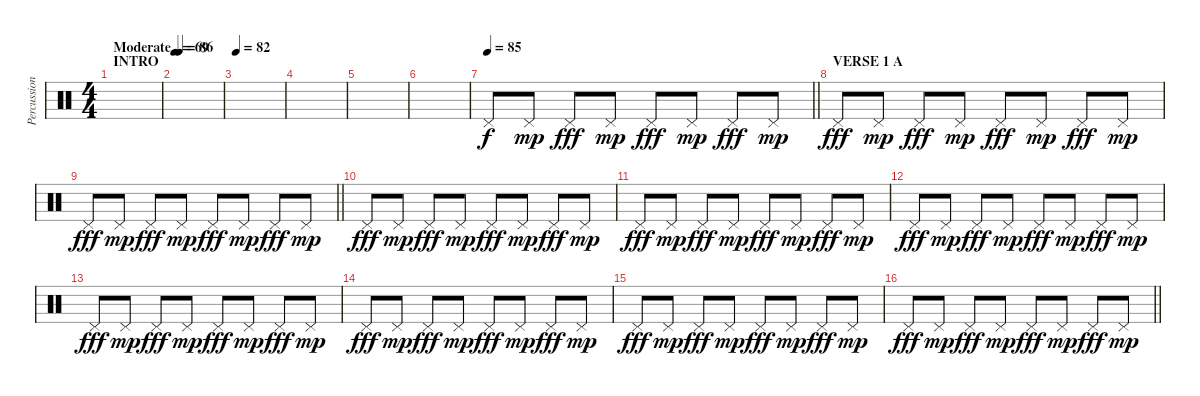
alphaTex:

\track ("Percussion" "Percussion") {instrument percussion}
\staff {score}
\articulation defaults
\ts (4 4)
\section ("" "INTRO")
\tempo (86 "Moderate")
\clef neutral
\ks c
|
\tempo 69
|
\tempo 82
|
|
|
|
\tempo 85
\barLineRight lightlight "Pedal Hi-Hat (hit)".8 "Pedal Hi-Hat (hit)".8{dy mp} "Pedal Hi-Hat (hit)".8{dy fff} "Pedal Hi-Hat (hit)".8{dy mp} "Pedal Hi-Hat (hit)".8{dy fff} "Pedal Hi-Hat (hit)".8{dy mp} "Pedal Hi-Hat (hit)".8{dy fff} "Pedal Hi-Hat (hit)".8{dy mp}
|
\section ("" "VERSE 1 A")
"Pedal Hi-Hat (hit)".8{dy fff} "Pedal Hi-Hat (hit)".8{dy mp} "Pedal Hi-Hat (hit)".8{dy fff} "Pedal Hi-Hat (hit)".8{dy mp} "Pedal Hi-Hat (hit)".8{dy fff} "Pedal Hi-Hat (hit)".8{dy mp} "Pedal Hi-Hat (hit)".8{dy fff} "Pedal Hi-Hat (hit)".8{dy mp} |
\barLineRight lightlight "Pedal Hi-Hat (hit)".8{dy fff} "Pedal Hi-Hat (hit)".8{dy mp} "Pedal Hi-Hat (hit)".8{dy fff} "Pedal Hi-Hat (hit)".8{dy mp} "Pedal Hi-Hat (hit)".8{dy fff} "Pedal Hi-Hat (hit)".8{dy mp} "Pedal Hi-Hat (hit)".8{dy fff} "Pedal Hi-Hat (hit)".8{dy mp}
|
"Pedal Hi-Hat (hit)".8{dy fff} "Pedal Hi-Hat (hit)".8{dy mp} "Pedal Hi-Hat (hit)".8{dy fff} "Pedal Hi-Hat (hit)".8{dy mp} "Pedal Hi-Hat (hit)".8{dy fff} "Pedal Hi-Hat (hit)".8{dy mp} "Pedal Hi-Hat (hit)".8{dy fff} "Pedal Hi-Hat (hit)".8{dy mp} |
"Pedal Hi-Hat (hit)".8{dy fff} "Pedal Hi-Hat (hit)".8{dy mp} "Pedal Hi-Hat (hit)".8{dy fff} "Pedal Hi-Hat (hit)".8{dy mp} "Pedal Hi-Hat (hit)".8{dy fff} "Pedal Hi-Hat (hit)".8{dy mp} "Pedal Hi-Hat (hit)".8{dy fff} "Pedal Hi-Hat (hit)".8{dy mp} |
"Pedal Hi-Hat (hit)".8{dy fff} "Pedal Hi-Hat (hit)".8{dy mp} "Pedal Hi-Hat (hit)".8{dy fff} "Pedal Hi-Hat (hit)".8{dy mp} "Pedal Hi-Hat (hit)".8{dy fff} "Pedal Hi-Hat (hit)".8{dy mp} "Pedal Hi-Hat (hit)".8{dy fff} "Pedal Hi-Hat (hit)".8{dy mp} |
"Pedal Hi-Hat (hit)".8{dy fff} "Pedal Hi-Hat (hit)".8{dy mp} "Pedal Hi-Hat (hit)".8{dy fff} "Pedal Hi-Hat (hit)".8{dy mp} "Pedal Hi-Hat (hit)".8{dy fff} "Pedal Hi-Hat (hit)".8{dy mp} "Pedal Hi-Hat (hit)".8{dy fff} "Pedal Hi-Hat (hit)".8{dy mp} |
"Pedal Hi-Hat (hit)".8{dy fff} "Pedal Hi-Hat (hit)".8{dy mp} "Pedal Hi-Hat (hit)".8{dy fff} "Pedal Hi-Hat (hit)".8{dy mp} "Pedal Hi-Hat (hit)".8{dy fff} "Pedal Hi-Hat (hit)".8{dy mp} "Pedal Hi-Hat (hit)".8{dy fff} "Pedal Hi-Hat (hit)".8{dy mp} |
"Pedal Hi-Hat (hit)".8{dy fff} "Pedal Hi-Hat (hit)".8{dy mp} "Pedal Hi-Hat (hit)".8{dy fff} "Pedal Hi-Hat (hit)".8{dy mp} "Pedal Hi-Hat (hit)".8{dy fff} "Pedal Hi-Hat (hit)".8{dy mp} "Pedal Hi-Hat (hit)".8{dy fff} "Pedal Hi-Hat (hit)".8{dy mp} |
\barLineRight lightlight "Pedal Hi-Hat (hit)".8{dy fff} "Pedal Hi-Hat (hit)".8{dy mp} "Pedal Hi-Hat (hit)".8{dy fff} "Pedal Hi-Hat (hit)".8{dy mp} "Pedal Hi-Hat (hit)".8{dy fff} "Pedal Hi-Hat (hit)".8{dy mp} "Pedal Hi-Hat (hit)".8{dy fff} "Pedal Hi-Hat (hit)".8{dy mp}
